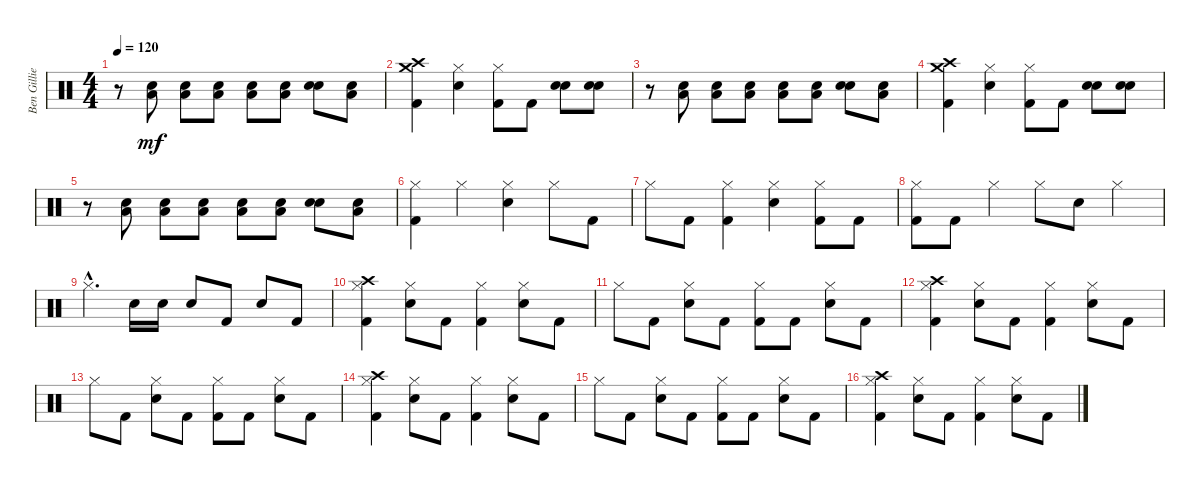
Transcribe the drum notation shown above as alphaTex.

\track ("Ben Gillies" "Ben Gillie") {instrument percussion}
\staff {score}
\articulation defaults
\ts (4 4)
\tempo 120
\clef neutral
\ks c
r.8{dy mf} ("Low Floor Tom (hit)" "Electric Snare (hit)").8 ("Low Floor Tom (hit)" "Electric Snare (hit)").8 ("Low Floor Tom (hit)" "Electric Snare (hit)").8 ("Low Floor Tom (hit)" "Electric Snare (hit)").8 ("Low Floor Tom (hit)" "Electric Snare (hit)").8 ("Electric Snare (hit)" "Electric Snare (hit)").8 ("Low Floor Tom (hit)" "Electric Snare (hit)").8 |
("Crash high (hit)" "Crash medium (hit)" "Kick (hit) 2").4 ("Hi-Hat (closed)" "Electric Snare (hit)").4 ("Hi-Hat (closed)" "Kick (hit) 2").8 "Kick (hit) 2".8 ("Electric Snare (hit)" "Electric Snare (hit)").8 ("Electric Snare (hit)" "Electric Snare (hit)").8 |
r.8 ("Low Floor Tom (hit)" "Electric Snare (hit)").8 ("Low Floor Tom (hit)" "Electric Snare (hit)").8 ("Low Floor Tom (hit)" "Electric Snare (hit)").8 ("Low Floor Tom (hit)" "Electric Snare (hit)").8 ("Low Floor Tom (hit)" "Electric Snare (hit)").8 ("Electric Snare (hit)" "Electric Snare (hit)").8 ("Low Floor Tom (hit)" "Electric Snare (hit)").8 |
("Crash high (hit)" "Crash medium (hit)" "Kick (hit) 2").4 ("Hi-Hat (closed)" "Electric Snare (hit)").4 ("Hi-Hat (closed)" "Kick (hit) 2").8 "Kick (hit) 2".8 ("Electric Snare (hit)" "Electric Snare (hit)").8 ("Electric Snare (hit)" "Electric Snare (hit)").8 |
r.8 ("Low Floor Tom (hit)" "Electric Snare (hit)").8 ("Low Floor Tom (hit)" "Electric Snare (hit)").8 ("Low Floor Tom (hit)" "Electric Snare (hit)").8 ("Low Floor Tom (hit)" "Electric Snare (hit)").8 ("Low Floor Tom (hit)" "Electric Snare (hit)").8 ("Electric Snare (hit)" "Electric Snare (hit)").8 ("Low Floor Tom (hit)" "Electric Snare (hit)").8 |
("Hi-Hat (closed)" "Kick (hit) 2").4 "Hi-Hat (closed)".4 ("Hi-Hat (closed)" "Electric Snare (hit)").4 "Hi-Hat (closed)".8 "Kick (hit) 2".8 |
"Hi-Hat (closed)".8 "Kick (hit) 2".8 ("Hi-Hat (closed)" "Kick (hit) 2").4 ("Hi-Hat (closed)" "Electric Snare (hit)").4 ("Hi-Hat (closed)" "Kick (hit) 2").8 "Kick (hit) 2".8 |
("Hi-Hat (closed)" "Kick (hit) 2").8 "Kick (hit) 2".8 "Hi-Hat (closed)".4 "Hi-Hat (closed)".8 "Electric Snare (hit)".8 "Hi-Hat (closed)".4 |
"Hi-Hat (closed)"{hac}.4{d} "Electric Snare (hit)".16 "Electric Snare (hit)".16 "Electric Snare (hit)".8 "Kick (hit) 2".8 "Electric Snare (hit)".8 "Kick (hit) 2".8 |
("Crash high (hit)" "Hi-Hat (closed)" "Kick (hit) 2").4 ("Hi-Hat (closed)" "Electric Snare (hit)").8 "Kick (hit) 2".8 ("Hi-Hat (closed)" "Kick (hit) 2").4 ("Hi-Hat (closed)" "Electric Snare (hit)").8 "Kick (hit) 2".8 |
"Hi-Hat (closed)".8 "Kick (hit) 2".8 ("Hi-Hat (closed)" "Electric Snare (hit)").8 "Kick (hit) 2".8 ("Hi-Hat (closed)" "Kick (hit) 2").8 "Kick (hit) 2".8 ("Hi-Hat (closed)" "Electric Snare (hit)").8 "Kick (hit) 2".8 |
("Crash high (hit)" "Hi-Hat (closed)" "Kick (hit) 2").4 ("Hi-Hat (closed)" "Electric Snare (hit)").8 "Kick (hit) 2".8 ("Hi-Hat (closed)" "Kick (hit) 2").4 ("Hi-Hat (closed)" "Electric Snare (hit)").8 "Kick (hit) 2".8 |
"Hi-Hat (closed)".8 "Kick (hit) 2".8 ("Hi-Hat (closed)" "Electric Snare (hit)").8 "Kick (hit) 2".8 ("Hi-Hat (closed)" "Kick (hit) 2").8 "Kick (hit) 2".8 ("Hi-Hat (closed)" "Electric Snare (hit)").8 "Kick (hit) 2".8 |
("Crash high (hit)" "Hi-Hat (closed)" "Kick (hit) 2").4 ("Hi-Hat (closed)" "Electric Snare (hit)").8 "Kick (hit) 2".8 ("Hi-Hat (closed)" "Kick (hit) 2").4 ("Hi-Hat (closed)" "Electric Snare (hit)").8 "Kick (hit) 2".8 |
"Hi-Hat (closed)".8 "Kick (hit) 2".8 ("Hi-Hat (closed)" "Electric Snare (hit)").8 "Kick (hit) 2".8 ("Hi-Hat (closed)" "Kick (hit) 2").8 "Kick (hit) 2".8 ("Hi-Hat (closed)" "Electric Snare (hit)").8 "Kick (hit) 2".8 |
("Crash high (hit)" "Hi-Hat (closed)" "Kick (hit) 2").4 ("Hi-Hat (closed)" "Electric Snare (hit)").8 "Kick (hit) 2".8 ("Hi-Hat (closed)" "Kick (hit) 2").4 ("Hi-Hat (closed)" "Electric Snare (hit)").8 "Kick (hit) 2".8
